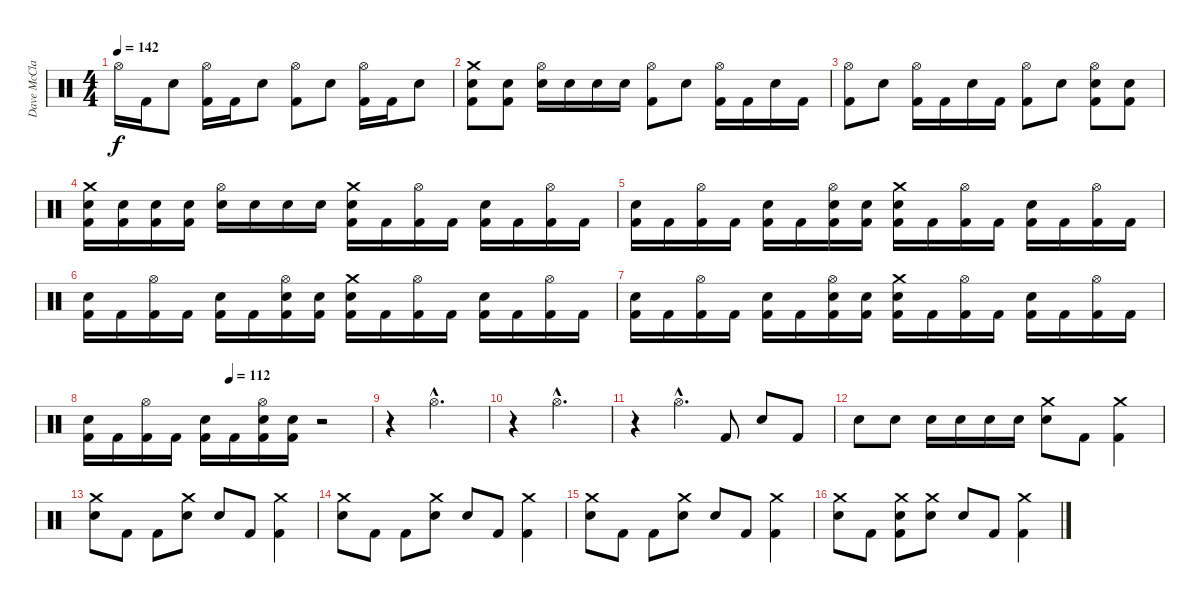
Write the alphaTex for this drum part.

\track ("Dave McClain" "Dave McCla") {instrument percussion}
\staff {score}
\articulation defaults
\ts (4 4)
\tempo 142
\clef neutral
\ks c "Hi-Hat (open)".16{dy f} "Kick (hit) 2".16 "Electric Snare (hit)".8
("Hi-Hat (open)" "Kick (hit) 2").16 "Kick (hit) 2".16 "Electric Snare (hit)".8 ("Hi-Hat (open)" "Kick (hit) 2").8 "Electric Snare (hit)".8 ("Hi-Hat (open)" "Kick (hit) 2").16 "Kick (hit) 2".16 "Electric Snare (hit)".8 |
("Crash medium (hit)" "Electric Snare (hit)" "Kick (hit) 2").8 ("Electric Snare (hit)" "Kick (hit) 2").8 ("Hi-Hat (open)" "Electric Snare (hit)").16 "Electric Snare (hit)".16 "Electric Snare (hit)".16 "Electric Snare (hit)".16 ("Hi-Hat (open)" "Kick (hit) 2").8 "Electric Snare (hit)".8 ("Hi-Hat (open)" "Kick (hit) 2").16 "Kick (hit) 2".16 "Electric Snare (hit)".16 "Kick (hit) 2".16 |
("Hi-Hat (open)" "Kick (hit) 2").8 "Electric Snare (hit)".8 ("Hi-Hat (open)" "Kick (hit) 2").16 "Kick (hit) 2".16 "Electric Snare (hit)".16 "Kick (hit) 2".16 ("Hi-Hat (open)" "Kick (hit) 2").8 "Electric Snare (hit)".8 ("Hi-Hat (open)" "Electric Snare (hit)" "Kick (hit) 2").8 ("Electric Snare (hit)" "Kick (hit) 2").8 |
("Crash medium (hit)" "Electric Snare (hit)" "Kick (hit) 2").16 ("Electric Snare (hit)" "Kick (hit) 2").16 ("Electric Snare (hit)" "Kick (hit) 2").16 ("Electric Snare (hit)" "Kick (hit) 2").16 ("Hi-Hat (open)" "Electric Snare (hit)").16 "Electric Snare (hit)".16 "Electric Snare (hit)".16 "Electric Snare (hit)".16 ("Crash medium (hit)" "Electric Snare (hit)" "Kick (hit) 2").16 "Kick (hit) 2".16 ("Hi-Hat (open)" "Kick (hit) 2").16 "Kick (hit) 2".16 ("Electric Snare (hit)" "Kick (hit) 2").16 "Kick (hit) 2".16 ("Hi-Hat (open)" "Kick (hit) 2").16 "Kick (hit) 2".16 |
("Electric Snare (hit)" "Kick (hit) 2").16 "Kick (hit) 2".16 ("Hi-Hat (open)" "Kick (hit) 2").16 "Kick (hit) 2".16 ("Electric Snare (hit)" "Kick (hit) 2").16 "Kick (hit) 2".16 ("Hi-Hat (open)" "Electric Snare (hit)" "Kick (hit) 2").16 ("Electric Snare (hit)" "Kick (hit) 2").16 ("Crash medium (hit)" "Electric Snare (hit)" "Kick (hit) 2").16 "Kick (hit) 2".16 ("Hi-Hat (open)" "Kick (hit) 2").16 "Kick (hit) 2".16 ("Electric Snare (hit)" "Kick (hit) 2").16 "Kick (hit) 2".16 ("Hi-Hat (open)" "Kick (hit) 2").16 "Kick (hit) 2".16 |
("Electric Snare (hit)" "Kick (hit) 2").16 "Kick (hit) 2".16 ("Hi-Hat (open)" "Kick (hit) 2").16 "Kick (hit) 2".16 ("Electric Snare (hit)" "Kick (hit) 2").16 "Kick (hit) 2".16 ("Hi-Hat (open)" "Electric Snare (hit)" "Kick (hit) 2").16 ("Electric Snare (hit)" "Kick (hit) 2").16 ("Crash medium (hit)" "Electric Snare (hit)" "Kick (hit) 2").16 "Kick (hit) 2".16 ("Hi-Hat (open)" "Kick (hit) 2").16 "Kick (hit) 2".16 ("Electric Snare (hit)" "Kick (hit) 2").16 "Kick (hit) 2".16 ("Hi-Hat (open)" "Kick (hit) 2").16 "Kick (hit) 2".16 |
("Electric Snare (hit)" "Kick (hit) 2").16 "Kick (hit) 2".16 ("Hi-Hat (open)" "Kick (hit) 2").16 "Kick (hit) 2".16 ("Electric Snare (hit)" "Kick (hit) 2").16 "Kick (hit) 2".16 ("Hi-Hat (open)" "Electric Snare (hit)" "Kick (hit) 2").16 ("Electric Snare (hit)" "Kick (hit) 2").16 ("Crash medium (hit)" "Electric Snare (hit)" "Kick (hit) 2").16 "Kick (hit) 2".16 ("Hi-Hat (open)" "Kick (hit) 2").16 "Kick (hit) 2".16 ("Electric Snare (hit)" "Kick (hit) 2").16 "Kick (hit) 2".16 ("Hi-Hat (open)" "Kick (hit) 2").16 "Kick (hit) 2".16 |
\tempo (112 0.5)
("Electric Snare (hit)" "Kick (hit) 2").16 "Kick (hit) 2".16 ("Hi-Hat (open)" "Kick (hit) 2").16 "Kick (hit) 2".16 ("Electric Snare (hit)" "Kick (hit) 2").16 "Kick (hit) 2".16 ("Hi-Hat (open)" "Electric Snare (hit)" "Kick (hit) 2").16 ("Electric Snare (hit)" "Kick (hit) 2").16 r.2 |
r.4 "Hi-Hat (open)"{hac}.2{d} |
r.4 "Hi-Hat (open)"{hac}.2{d} |
r.4 "Hi-Hat (open)"{hac}.4{d} "Kick (hit) 2".8 "Electric Snare (hit)".8 "Kick (hit) 2".8 |
"Electric Snare (hit)".8 "Electric Snare (hit)".8 "Electric Snare (hit)".16 "Electric Snare (hit)".16 "Electric Snare (hit)".16 "Electric Snare (hit)".16 ("Crash medium (hit)" "Electric Snare (hit)").8 "Kick (hit) 2".8 ("Crash medium (hit)" "Kick (hit) 2").4 |
("Crash medium (hit)" "Electric Snare (hit)").8 "Kick (hit) 2".8 "Kick (hit) 2".8 ("Crash medium (hit)" "Electric Snare (hit)").8 "Electric Snare (hit)".8 "Kick (hit) 2".8 ("Crash medium (hit)" "Kick (hit) 2").4 |
("Crash medium (hit)" "Electric Snare (hit)").8 "Kick (hit) 2".8 "Kick (hit) 2".8 ("Crash medium (hit)" "Electric Snare (hit)").8 "Electric Snare (hit)".8 "Kick (hit) 2".8 ("Crash medium (hit)" "Kick (hit) 2").4 |
("Crash medium (hit)" "Electric Snare (hit)").8 "Kick (hit) 2".8 "Kick (hit) 2".8 ("Crash medium (hit)" "Electric Snare (hit)").8 "Electric Snare (hit)".8 "Kick (hit) 2".8 ("Crash medium (hit)" "Kick (hit) 2").4 |
("Crash medium (hit)" "Electric Snare (hit)").8 "Kick (hit) 2".8 ("Crash medium (hit)" "Electric Snare (hit)" "Kick (hit) 2").8 ("Crash medium (hit)" "Electric Snare (hit)").8 "Electric Snare (hit)".8 "Kick (hit) 2".8 ("Crash medium (hit)" "Kick (hit) 2").4
